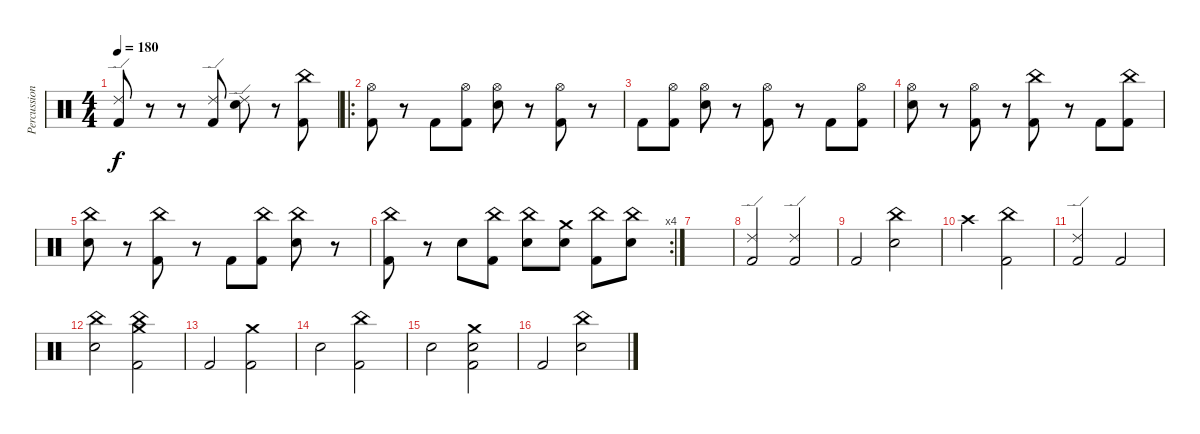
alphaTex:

\track ("Percussion" "Percussion") {instrument percussion}
\staff {score}
\articulation defaults
\ts (4 4)
\tempo 180
\clef neutral
\ks c
("Kick (hit) 2" "Ride (edge) 2").8{dy f} r.8 r.8 ("Kick (hit) 2" "Ride (edge) 2").8 ("Electric Snare (hit)" "Ride (edge) 2").8 r.8 ("Kick (hit) 2" "China (hit)").8 |
\ro
("Kick (hit) 2" "Hi-Hat (open)").8 r.8 "Kick (hit) 2".8 ("Kick (hit) 2" "Hi-Hat (open)").8 ("Electric Snare (hit)" "Hi-Hat (open)").8 r.8 ("Kick (hit) 2" "Hi-Hat (open)").8 r.8 |
"Kick (hit) 2".8 ("Kick (hit) 2" "Hi-Hat (open)").8 ("Electric Snare (hit)" "Hi-Hat (open)").8 r.8 ("Kick (hit) 2" "Hi-Hat (open)").8 r.8 "Kick (hit) 2".8 ("Kick (hit) 2" "Hi-Hat (open)").8 |
("Electric Snare (hit)" "Hi-Hat (open)").8 r.8 ("Kick (hit) 2" "Hi-Hat (open)").8 r.8 ("Kick (hit) 2" "China (hit)").8 r.8 "Kick (hit) 2".8 ("Kick (hit) 2" "China (hit)").8 |
("Snare (hit) 2" "China (hit)").8 r.8 ("Kick (hit) 2" "China (hit)").8 r.8 "Kick (hit) 2".8 ("Kick (hit) 2" "China (hit)").8 ("Snare (hit) 2" "China (hit)").8 r.8 |
\rc 4
("Kick (hit) 2" "China (hit)").8 r.8 "Snare (hit)".8 ("Kick (hit) 2" "China (hit)").8 ("Snare (hit) 2" "China (hit)").8 ("Electric Snare (hit)" "Crash medium (hit)").8 ("Kick (hit) 2" "China (hit)").8 ("Electric Snare (hit)" "China (hit)").8 |
|
("Kick (hit) 2" "Ride (edge) 2").2 ("Kick (hit) 2" "Ride (edge) 2").2 |
"Kick (hit) 2".2 ("Snare (hit) 2" "China (hit)").2 |
"Crash high (hit)".2 ("Kick (hit) 2" "China (hit)").2 |
("Kick (hit) 2" "Ride (edge) 2").2 "Kick (hit) 2".2 |
("Electric Snare (hit)" "China (hit)").2 ("China (hit)" "Kick (hit) 2" "Crash medium (hit)").2 |
"Kick (hit) 2".2 ("Kick (hit) 2" "Crash medium (hit)").2 |
"Snare (hit) 2".2 ("Kick (hit) 2" "China (hit)").2 |
"Electric Snare (hit)".2 ("Kick (hit) 2" "Snare (hit) 2" "Crash medium (hit)").2 |
"Kick (hit) 2".2 ("Snare (hit) 2" "China (hit)").2
